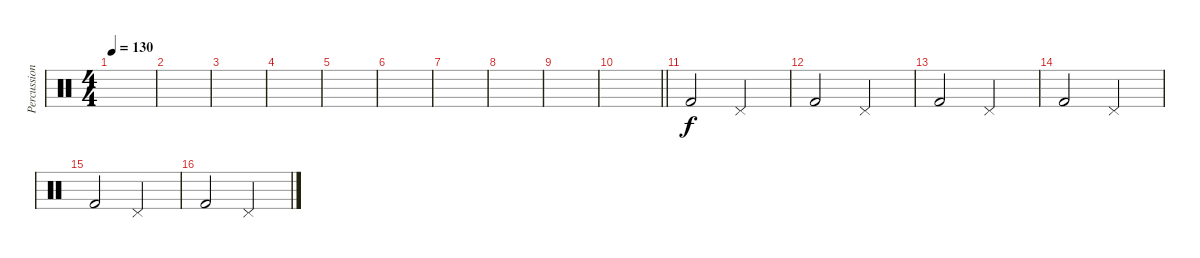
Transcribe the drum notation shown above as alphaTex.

\track ("Percussion" "Percussion") {instrument percussion}
\staff {score}
\articulation defaults
\ts (4 4)
\tempo 130
\clef neutral
\ks c
|
|
|
|
|
|
|
|
|
\barLineRight lightlight
|
"Kick (hit) 2".2{volume 16} "Pedal Hi-Hat (hit)".2 |
"Kick (hit) 2".2 "Pedal Hi-Hat (hit)".2 |
"Kick (hit) 2".2 "Pedal Hi-Hat (hit)".2 |
"Kick (hit) 2".2 "Pedal Hi-Hat (hit)".2 |
"Kick (hit) 2".2 "Pedal Hi-Hat (hit)".2 |
"Kick (hit) 2".2 "Pedal Hi-Hat (hit)".2
